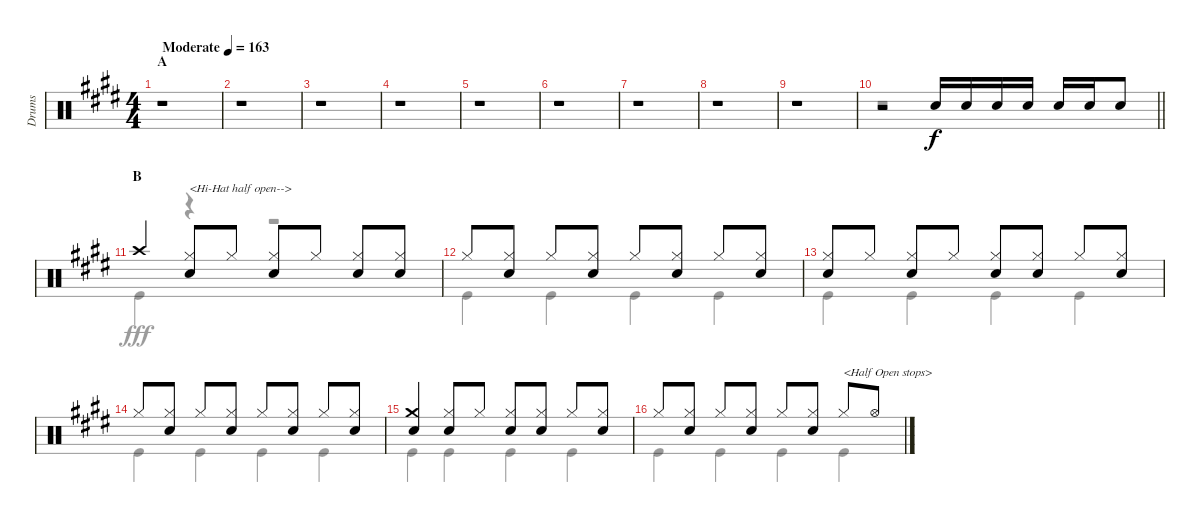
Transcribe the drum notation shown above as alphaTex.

\track ("Drums" "Drums") {instrument percussion}
\staff {score}
\articulation defaults
\voice
\ts (4 4)
\section ("" "A")
\tempo (163 "Moderate")
\clef neutral
\ks e
r.1{dy f} |
r.1 |
r.1 |
r.1 |
r.1 |
r.1 |
r.1 |
r.1 |
r.1 |
\barLineRight lightlight
r.2 "Snare (hit) 2".16 "Snare (hit) 2".16 "Snare (hit) 2".16 "Snare (hit) 2".16 "Snare (hit) 2".16 "Snare (hit) 2".16 "Snare (hit) 2".8 |
\section ("" "B")
"Crash high (hit)".4 ("Hi-Hat (closed)" "Snare (hit) 2").8{txt "<Hi-Hat half open-->"} "Hi-Hat (closed)".8 ("Hi-Hat (closed)" "Snare (hit) 2").8 "Hi-Hat (closed)".8 ("Hi-Hat (closed)" "Snare (hit) 2").8 ("Hi-Hat (closed)" "Snare (hit) 2").8 |
"Hi-Hat (closed)".8 ("Hi-Hat (closed)" "Snare (hit) 2").8 "Hi-Hat (closed)".8 ("Hi-Hat (closed)" "Snare (hit) 2").8 "Hi-Hat (closed)".8 ("Hi-Hat (closed)" "Snare (hit) 2").8 "Hi-Hat (closed)".8 ("Hi-Hat (closed)" "Snare (hit) 2").8 |
("Hi-Hat (closed)" "Snare (hit) 2").8 "Hi-Hat (closed)".8 ("Hi-Hat (closed)" "Snare (hit) 2").8 "Hi-Hat (closed)".8 ("Hi-Hat (closed)" "Snare (hit) 2").8 ("Hi-Hat (closed)" "Snare (hit) 2").8 "Hi-Hat (closed)".8 ("Hi-Hat (closed)" "Snare (hit) 2").8 |
"Hi-Hat (closed)".8 ("Hi-Hat (closed)" "Snare (hit) 2").8 "Hi-Hat (closed)".8 ("Hi-Hat (closed)" "Snare (hit) 2").8 "Hi-Hat (closed)".8 ("Hi-Hat (closed)" "Snare (hit) 2").8 "Hi-Hat (closed)".8 ("Hi-Hat (closed)" "Snare (hit) 2").8 |
("Crash medium (hit)" "Snare (hit) 2").4 ("Hi-Hat (closed)" "Snare (hit) 2").8 "Hi-Hat (closed)".8 ("Hi-Hat (closed)" "Snare (hit) 2").8 ("Hi-Hat (closed)" "Snare (hit) 2").8 "Hi-Hat (closed)".8 ("Hi-Hat (closed)" "Snare (hit) 2").8 |
"Hi-Hat (closed)".8 ("Hi-Hat (closed)" "Snare (hit) 2").8 "Hi-Hat (closed)".8 ("Hi-Hat (closed)" "Snare (hit) 2").8 "Hi-Hat (closed)".8 ("Hi-Hat (closed)" "Snare (hit) 2").8 "Hi-Hat (closed)".8{txt "<Half Open stops>"} "Hi-Hat (open)".8
\voice
\clef neutral
\ottava regular
\simile none
\ks e
r.1{dy fff} |
r.1 |
r.1 |
r.1 |
r.1 |
r.1 |
r.1 |
r.1 |
r.1 |
\barLineRight lightlight
r.1 |
"Kick (hit)".4 r.4 r.2 |
"Kick (hit)".4 "Kick (hit)".4 "Kick (hit)".4 "Kick (hit)".4 |
"Kick (hit)".4 "Kick (hit)".4 "Kick (hit)".4 "Kick (hit)".4 |
"Kick (hit)".4 "Kick (hit)".4 "Kick (hit)".4 "Kick (hit)".4 |
"Kick (hit)".4 "Kick (hit)".4 "Kick (hit)".4 "Kick (hit)".4 |
"Kick (hit)".4 "Kick (hit)".4 "Kick (hit)".4 "Kick (hit)".4
